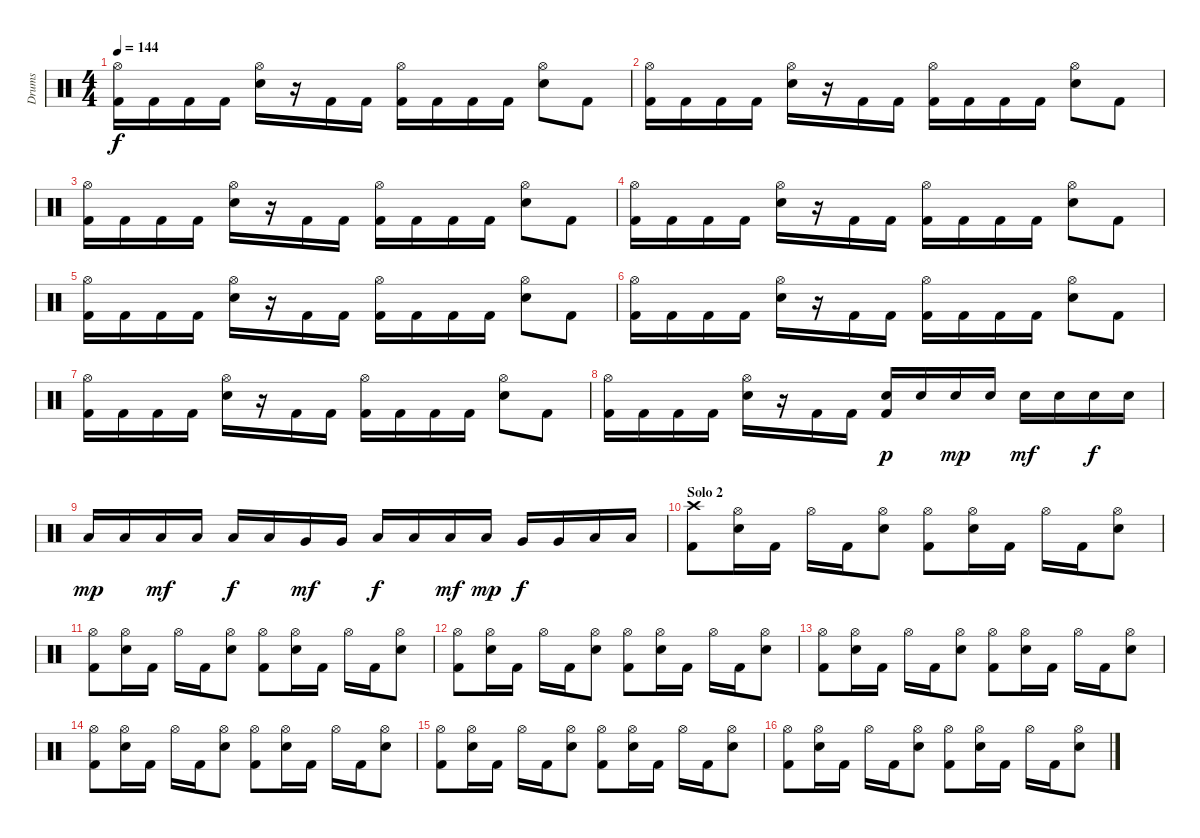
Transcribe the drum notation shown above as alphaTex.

\track ("Drums" "Drums") {instrument percussion}
\staff {score}
\articulation defaults
\ts (4 4)
\tempo 144
\clef neutral
\ks c
("Kick (hit) 2" "Hi-Hat (open)").16{dy f} "Kick (hit) 2".16 "Kick (hit) 2".16 "Kick (hit) 2".16 ("Electric Snare (hit)" "Hi-Hat (open)").16 r.16 "Kick (hit) 2".16 "Kick (hit) 2".16 ("Kick (hit) 2" "Hi-Hat (open)").16 "Kick (hit) 2".16 "Kick (hit) 2".16 "Kick (hit) 2".16 ("Electric Snare (hit)" "Hi-Hat (open)").8 "Kick (hit) 2".8 |
("Kick (hit) 2" "Hi-Hat (open)").16 "Kick (hit) 2".16 "Kick (hit) 2".16 "Kick (hit) 2".16 ("Electric Snare (hit)" "Hi-Hat (open)").16 r.16 "Kick (hit) 2".16 "Kick (hit) 2".16 ("Kick (hit) 2" "Hi-Hat (open)").16 "Kick (hit) 2".16 "Kick (hit) 2".16 "Kick (hit) 2".16 ("Electric Snare (hit)" "Hi-Hat (open)").8 "Kick (hit) 2".8 |
("Kick (hit) 2" "Hi-Hat (open)").16 "Kick (hit) 2".16 "Kick (hit) 2".16 "Kick (hit) 2".16 ("Electric Snare (hit)" "Hi-Hat (open)").16 r.16 "Kick (hit) 2".16 "Kick (hit) 2".16 ("Kick (hit) 2" "Hi-Hat (open)").16 "Kick (hit) 2".16 "Kick (hit) 2".16 "Kick (hit) 2".16 ("Electric Snare (hit)" "Hi-Hat (open)").8 "Kick (hit) 2".8 |
("Kick (hit) 2" "Hi-Hat (open)").16 "Kick (hit) 2".16 "Kick (hit) 2".16 "Kick (hit) 2".16 ("Electric Snare (hit)" "Hi-Hat (open)").16 r.16 "Kick (hit) 2".16 "Kick (hit) 2".16 ("Kick (hit) 2" "Hi-Hat (open)").16 "Kick (hit) 2".16 "Kick (hit) 2".16 "Kick (hit) 2".16 ("Electric Snare (hit)" "Hi-Hat (open)").8 "Kick (hit) 2".8 |
("Kick (hit) 2" "Hi-Hat (open)").16 "Kick (hit) 2".16 "Kick (hit) 2".16 "Kick (hit) 2".16 ("Electric Snare (hit)" "Hi-Hat (open)").16 r.16 "Kick (hit) 2".16 "Kick (hit) 2".16 ("Kick (hit) 2" "Hi-Hat (open)").16 "Kick (hit) 2".16 "Kick (hit) 2".16 "Kick (hit) 2".16 ("Electric Snare (hit)" "Hi-Hat (open)").8 "Kick (hit) 2".8 |
("Kick (hit) 2" "Hi-Hat (open)").16 "Kick (hit) 2".16 "Kick (hit) 2".16 "Kick (hit) 2".16 ("Electric Snare (hit)" "Hi-Hat (open)").16 r.16 "Kick (hit) 2".16 "Kick (hit) 2".16 ("Kick (hit) 2" "Hi-Hat (open)").16 "Kick (hit) 2".16 "Kick (hit) 2".16 "Kick (hit) 2".16 ("Electric Snare (hit)" "Hi-Hat (open)").8 "Kick (hit) 2".8 |
("Kick (hit) 2" "Hi-Hat (open)").16 "Kick (hit) 2".16 "Kick (hit) 2".16 "Kick (hit) 2".16 ("Electric Snare (hit)" "Hi-Hat (open)").16 r.16 "Kick (hit) 2".16 "Kick (hit) 2".16 ("Kick (hit) 2" "Hi-Hat (open)").16 "Kick (hit) 2".16 "Kick (hit) 2".16 "Kick (hit) 2".16 ("Electric Snare (hit)" "Hi-Hat (open)").8 "Kick (hit) 2".8 |
("Kick (hit) 2" "Hi-Hat (open)").16 "Kick (hit) 2".16 "Kick (hit) 2".16 "Kick (hit) 2".16 ("Electric Snare (hit)" "Hi-Hat (open)").16 r.16 "Kick (hit) 2".16 "Kick (hit) 2".16 ("Kick (hit) 2" "Electric Snare (hit)").16{dy p} "Electric Snare (hit)".16 "Electric Snare (hit)".16{dy mp} "Electric Snare (hit)".16 "Electric Snare (hit)".16{dy mf} "Electric Snare (hit)".16 "Electric Snare (hit)".16{dy f} "Electric Snare (hit)".16 |
"Low Floor Tom (hit)".16{dy mp} "Low Floor Tom (hit)".16 "Low Floor Tom (hit)".16{dy mf} "Low Floor Tom (hit)".16 "Low Tom (hit)".16{dy f} "Low Tom (hit)".16 "Very Low Tom (hit)".16{dy mf} "Very Low Tom (hit)".16 "Low Tom (hit)".16{dy f} "Low Tom (hit)".16 "Low Tom (hit)".16{dy mf} "Low Tom (hit)".16{dy mp} "Very Low Tom (hit)".16{dy f} "Very Low Tom (hit)".16 "Low Tom (hit)".16 "Low Tom (hit)".16 |
\section ("" "Solo 2")
("Kick (hit) 2" "Crash high (hit)").8 ("Electric Snare (hit)" "Hi-Hat (open)").16 "Kick (hit) 2".16 "Hi-Hat (open)".16 "Kick (hit) 2".16 ("Electric Snare (hit)" "Hi-Hat (open)").8 ("Kick (hit) 2" "Hi-Hat (open)").8 ("Electric Snare (hit)" "Hi-Hat (open)").16 "Kick (hit) 2".16 "Hi-Hat (open)".16 "Kick (hit) 2".16 ("Electric Snare (hit)" "Hi-Hat (open)").8 |
("Kick (hit) 2" "Hi-Hat (open)").8 ("Electric Snare (hit)" "Hi-Hat (open)").16 "Kick (hit) 2".16 "Hi-Hat (open)".16 "Kick (hit) 2".16 ("Electric Snare (hit)" "Hi-Hat (open)").8 ("Kick (hit) 2" "Hi-Hat (open)").8 ("Electric Snare (hit)" "Hi-Hat (open)").16 "Kick (hit) 2".16 "Hi-Hat (open)".16 "Kick (hit) 2".16 ("Electric Snare (hit)" "Hi-Hat (open)").8 |
("Kick (hit) 2" "Hi-Hat (open)").8 ("Electric Snare (hit)" "Hi-Hat (open)").16 "Kick (hit) 2".16 "Hi-Hat (open)".16 "Kick (hit) 2".16 ("Electric Snare (hit)" "Hi-Hat (open)").8 ("Kick (hit) 2" "Hi-Hat (open)").8 ("Electric Snare (hit)" "Hi-Hat (open)").16 "Kick (hit) 2".16 "Hi-Hat (open)".16 "Kick (hit) 2".16 ("Electric Snare (hit)" "Hi-Hat (open)").8 |
("Kick (hit) 2" "Hi-Hat (open)").8 ("Electric Snare (hit)" "Hi-Hat (open)").16 "Kick (hit) 2".16 "Hi-Hat (open)".16 "Kick (hit) 2".16 ("Electric Snare (hit)" "Hi-Hat (open)").8 ("Kick (hit) 2" "Hi-Hat (open)").8 ("Electric Snare (hit)" "Hi-Hat (open)").16 "Kick (hit) 2".16 "Hi-Hat (open)".16 "Kick (hit) 2".16 ("Electric Snare (hit)" "Hi-Hat (open)").8 |
("Kick (hit) 2" "Hi-Hat (open)").8 ("Electric Snare (hit)" "Hi-Hat (open)").16 "Kick (hit) 2".16 "Hi-Hat (open)".16 "Kick (hit) 2".16 ("Electric Snare (hit)" "Hi-Hat (open)").8 ("Kick (hit) 2" "Hi-Hat (open)").8 ("Electric Snare (hit)" "Hi-Hat (open)").16 "Kick (hit) 2".16 "Hi-Hat (open)".16 "Kick (hit) 2".16 ("Electric Snare (hit)" "Hi-Hat (open)").8 |
("Kick (hit) 2" "Hi-Hat (open)").8 ("Electric Snare (hit)" "Hi-Hat (open)").16 "Kick (hit) 2".16 "Hi-Hat (open)".16 "Kick (hit) 2".16 ("Electric Snare (hit)" "Hi-Hat (open)").8 ("Kick (hit) 2" "Hi-Hat (open)").8 ("Electric Snare (hit)" "Hi-Hat (open)").16 "Kick (hit) 2".16 "Hi-Hat (open)".16 "Kick (hit) 2".16 ("Electric Snare (hit)" "Hi-Hat (open)").8 |
("Kick (hit) 2" "Hi-Hat (open)").8 ("Electric Snare (hit)" "Hi-Hat (open)").16 "Kick (hit) 2".16 "Hi-Hat (open)".16 "Kick (hit) 2".16 ("Electric Snare (hit)" "Hi-Hat (open)").8 ("Kick (hit) 2" "Hi-Hat (open)").8 ("Electric Snare (hit)" "Hi-Hat (open)").16 "Kick (hit) 2".16 "Hi-Hat (open)".16 "Kick (hit) 2".16 ("Electric Snare (hit)" "Hi-Hat (open)").8
